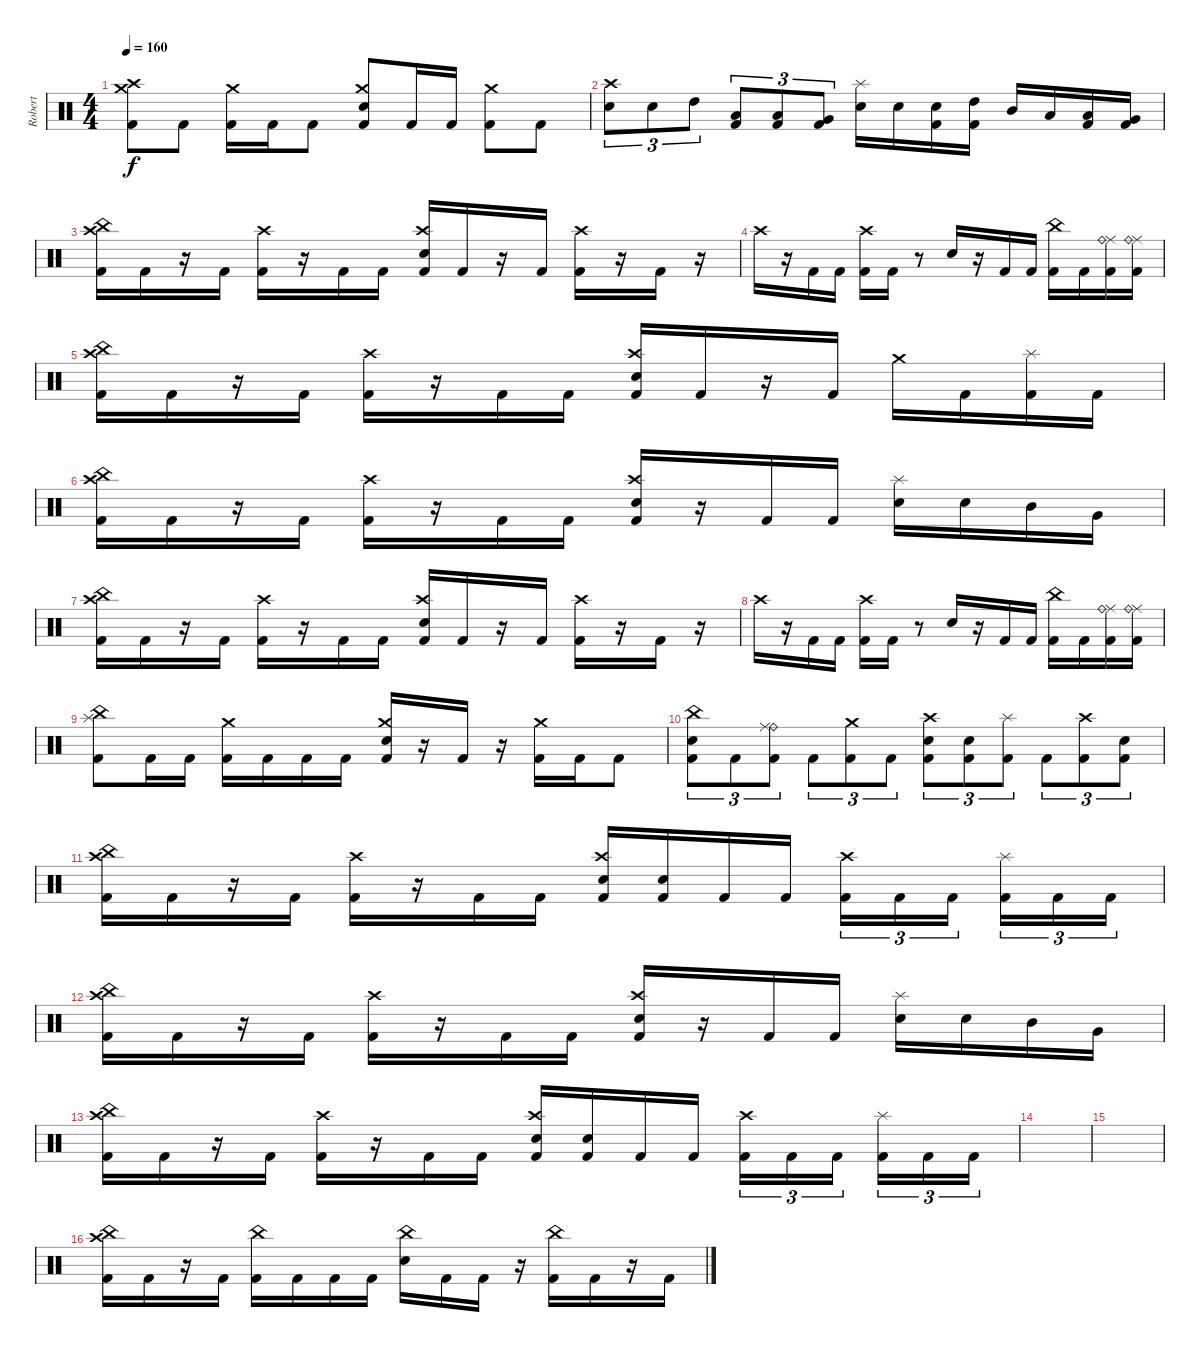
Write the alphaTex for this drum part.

\track ("Robert" "Robert") {instrument percussion}
\staff {score}
\articulation defaults
\ts (4 4)
\tempo 160
\clef neutral
\ks c
("Kick (hit) 2" "Crash medium (hit)" "Crash high (hit)").8{dy f} "Kick (hit) 2".8 ("Kick (hit) 2" "Crash medium (hit)").16 "Kick (hit) 2".16 "Kick (hit) 2".8 ("Kick (hit) 2" "Electric Snare (hit)" "Crash medium (hit)").8 "Kick (hit) 2".16 "Kick (hit) 2".16 ("Kick (hit) 2" "Crash medium (hit)").8 "Kick (hit) 2".8 |
("Electric Snare (hit)" "Crash high (hit)").8{tu (3 2)} "Electric Snare (hit)".8{tu (3 2)} "High Tom (hit)".8{tu (3 2)} ("Low Tom (hit)" "Kick (hit) 2").8{tu (3 2)} ("Low Tom (hit)" "Kick (hit) 2").8{tu (3 2)} ("Very Low Tom (hit)" "Kick (hit) 2").8{tu (3 2)} ("Electric Snare (hit)" "Splash (hit)").16 "Electric Snare (hit)".16 ("Electric Snare (hit)" "Kick (hit) 2").16 ("High Tom (hit)" "Kick (hit) 2").16 "Mid Tom (hit)".16 "Low Tom (hit)".16 ("Low Tom (hit)" "Kick (hit) 2").16 ("Very Low Tom (hit)" "Kick (hit) 2").16 |
("Crash high (hit)" "China (hit)" "Kick (hit) 2").16 "Kick (hit) 2".16 r.16 "Kick (hit) 2".16 ("Crash high (hit)" "Kick (hit) 2").16 r.16 "Kick (hit) 2".16 "Kick (hit) 2".16 ("Crash high (hit)" "Electric Snare (hit)" "Kick (hit) 2").16 "Kick (hit) 2".16 r.16 "Kick (hit) 2".16 ("Crash high (hit)" "Kick (hit) 2").16 r.16 "Kick (hit) 2".16 r.16 |
"Crash high (hit)".16 r.16 "Kick (hit) 2".16 "Kick (hit) 2".16 ("Crash high (hit)" "Kick (hit) 2").16 "Kick (hit) 2".16 r.8 "Electric Snare (hit)".16 r.16 "Kick (hit) 2".16 "Kick (hit) 2".16 ("China (hit)" "Kick (hit) 2").16 "Kick (hit) 2".16 ("Ride (middle)" "Ride (bell)" "Kick (hit) 2").16 ("Ride (middle)" "Ride (bell)" "Kick (hit) 2").16 |
("Crash high (hit)" "China (hit)" "Kick (hit) 2").16 "Kick (hit) 2".16 r.16 "Kick (hit) 2".16 ("Crash high (hit)" "Kick (hit) 2").16 r.16 "Kick (hit) 2".16 "Kick (hit) 2".16 ("Crash high (hit)" "Electric Snare (hit)" "Kick (hit) 2").16 "Kick (hit) 2".16 r.16 "Kick (hit) 2".16 "Crash medium (hit)".16 "Kick (hit) 2".16 ("Kick (hit) 2" "Splash (hit)").16 "Kick (hit) 2".16 |
("China (hit)" "Crash high (hit)" "Kick (hit) 2").16 "Kick (hit) 2".16 r.16 "Kick (hit) 2".16 ("Crash high (hit)" "Kick (hit) 2").16 r.16 "Kick (hit) 2".16 "Kick (hit) 2".16 ("Crash high (hit)" "Electric Snare (hit)" "Kick (hit) 2").16 r.16 "Kick (hit) 2".16 "Kick (hit) 2".16 ("Splash (hit)" "Electric Snare (hit)").16 "Electric Snare (hit)".16 "Mid Tom (hit)".16 "Very Low Tom (hit)".16 |
("Crash high (hit)" "China (hit)" "Kick (hit) 2").16 "Kick (hit) 2".16 r.16 "Kick (hit) 2".16 ("Crash high (hit)" "Kick (hit) 2").16 r.16 "Kick (hit) 2".16 "Kick (hit) 2".16 ("Crash high (hit)" "Electric Snare (hit)" "Kick (hit) 2").16 "Kick (hit) 2".16 r.16 "Kick (hit) 2".16 ("Crash high (hit)" "Kick (hit) 2").16 r.16 "Kick (hit) 2".16 r.16 |
"Crash high (hit)".16 r.16 "Kick (hit) 2".16 "Kick (hit) 2".16 ("Crash high (hit)" "Kick (hit) 2").16 "Kick (hit) 2".16 r.8 "Electric Snare (hit)".16 r.16 "Kick (hit) 2".16 "Kick (hit) 2".16 ("China (hit)" "Kick (hit) 2").16 "Kick (hit) 2".16 ("Ride (middle)" "Ride (bell)" "Kick (hit) 2").16 ("Ride (middle)" "Ride (bell)" "Kick (hit) 2").16 |
("Kick (hit) 2" "China (hit)" "Splash (hit)").8 "Kick (hit) 2".16 "Kick (hit) 2".16 ("Kick (hit) 2" "Crash medium (hit)").16 "Kick (hit) 2".16 "Kick (hit) 2".16 "Kick (hit) 2".16 ("Kick (hit) 2" "Crash medium (hit)" "Electric Snare (hit)").16 r.16 "Kick (hit) 2".16 r.16 ("Kick (hit) 2" "Crash medium (hit)").16 "Kick (hit) 2".16 "Kick (hit) 2".8 |
("Kick (hit) 2" "China (hit)" "Electric Snare (hit)").8{tu (3 2)} "Kick (hit) 2".8{tu (3 2)} ("Kick (hit) 2" "Ride (bell)" "Ride (middle)").8{tu (3 2)} "Kick (hit) 2".8{tu (3 2)} ("Kick (hit) 2" "Crash medium (hit)").8{tu (3 2)} "Kick (hit) 2".8{tu (3 2)} ("Kick (hit) 2" "Electric Snare (hit)" "Crash high (hit)").8{tu (3 2)} ("Kick (hit) 2" "Electric Snare (hit)").8{tu (3 2)} ("Kick (hit) 2" "Splash (hit)").8{tu (3 2)} "Kick (hit) 2".8{tu (3 2)} ("Kick (hit) 2" "Crash high (hit)").8{tu (3 2)} ("Kick (hit) 2" "Electric Snare (hit)").8{tu (3 2)} |
("China (hit)" "Crash high (hit)" "Kick (hit) 2").16 "Kick (hit) 2".16 r.16 "Kick (hit) 2".16 ("Crash high (hit)" "Kick (hit) 2").16 r.16 "Kick (hit) 2".16 "Kick (hit) 2".16 ("Crash high (hit)" "Electric Snare (hit)" "Kick (hit) 2").16 ("Electric Snare (hit)" "Kick (hit) 2").16 "Kick (hit) 2".16 "Kick (hit) 2".16 ("Crash high (hit)" "Kick (hit) 2").16{tu (3 2)} "Kick (hit) 2".16{tu (3 2)} "Kick (hit) 2".16{tu (3 2) beam splitsecondary} ("Splash (hit)" "Kick (hit) 2").16{tu (3 2)} "Kick (hit) 2".16{tu (3 2)} "Kick (hit) 2".16{tu (3 2)} |
("China (hit)" "Crash high (hit)" "Kick (hit) 2").16 "Kick (hit) 2".16 r.16 "Kick (hit) 2".16 ("Crash high (hit)" "Kick (hit) 2").16 r.16 "Kick (hit) 2".16 "Kick (hit) 2".16 ("Crash high (hit)" "Electric Snare (hit)" "Kick (hit) 2").16 r.16 "Kick (hit) 2".16 "Kick (hit) 2".16 ("Splash (hit)" "Electric Snare (hit)").16 "Electric Snare (hit)".16 "Mid Tom (hit)".16 "Very Low Tom (hit)".16 |
("China (hit)" "Crash high (hit)" "Kick (hit) 2").16 "Kick (hit) 2".16 r.16 "Kick (hit) 2".16 ("Crash high (hit)" "Kick (hit) 2").16 r.16 "Kick (hit) 2".16 "Kick (hit) 2".16 ("Crash high (hit)" "Electric Snare (hit)" "Kick (hit) 2").16 ("Electric Snare (hit)" "Kick (hit) 2").16 "Kick (hit) 2".16 "Kick (hit) 2".16 ("Crash high (hit)" "Kick (hit) 2").16{tu (3 2)} "Kick (hit) 2".16{tu (3 2)} "Kick (hit) 2".16{tu (3 2) beam splitsecondary} ("Splash (hit)" "Kick (hit) 2").16{tu (3 2)} "Kick (hit) 2".16{tu (3 2)} "Kick (hit) 2".16{tu (3 2)} |
|
|
("China (hit)" "Crash high (hit)" "Kick (hit) 2").16 "Kick (hit) 2".16 r.16 "Kick (hit) 2".16 ("China (hit)" "Kick (hit) 2").16 "Kick (hit) 2".16 "Kick (hit) 2".16 "Kick (hit) 2".16 ("China (hit)" "Electric Snare (hit)").16 "Kick (hit) 2".16 "Kick (hit) 2".16 r.16 ("China (hit)" "Kick (hit) 2").16 "Kick (hit) 2".16 r.16 "Kick (hit) 2".16
